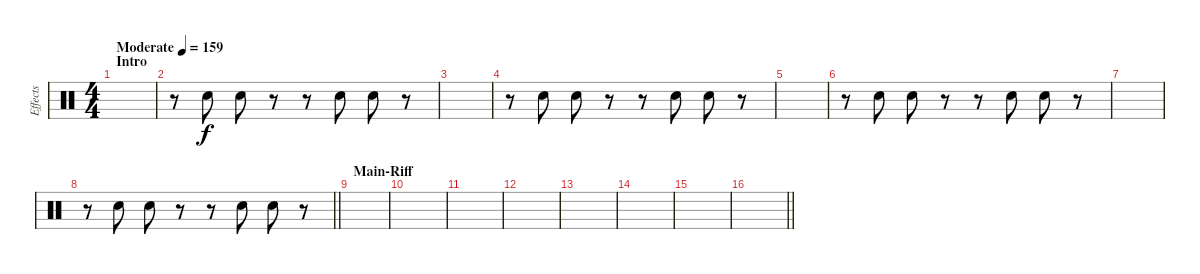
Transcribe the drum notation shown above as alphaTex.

\track ("Effects" "Effects") {instrument percussion}
\staff {score}
\articulation defaults
\ts (4 4)
\section ("" "Intro")
\tempo (159 "Moderate")
\clef neutral
\ks c
|
r.8 "Hand Clap (hit)".8 "Hand Clap (hit)".8 r.8 r.8 "Hand Clap (hit)".8 "Hand Clap (hit)".8 r.8 |
|
r.8 "Hand Clap (hit)".8 "Hand Clap (hit)".8 r.8 r.8 "Hand Clap (hit)".8 "Hand Clap (hit)".8 r.8 |
|
r.8 "Hand Clap (hit)".8 "Hand Clap (hit)".8 r.8 r.8 "Hand Clap (hit)".8 "Hand Clap (hit)".8 r.8 |
|
\barLineRight lightlight
r.8 "Hand Clap (hit)".8 "Hand Clap (hit)".8 r.8 r.8 "Hand Clap (hit)".8 "Hand Clap (hit)".8 r.8 |
\section ("" "Main-Riff")
|
|
|
|
|
|
|
\barLineRight lightlight
